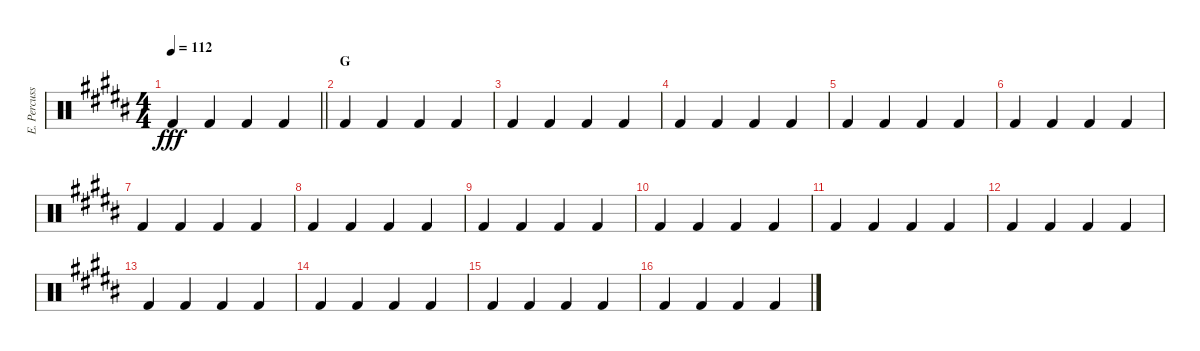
\track ("E. Percussion" "E. Percuss") {instrument percussion}
\staff {score}
\articulation defaults
\ts (4 4)
\tempo 112
\clef neutral
\barLineRight lightlight
\ks b "Kick (hit) 2".4{dy fff} "Kick (hit) 2".4 "Kick (hit) 2".4 "Kick (hit) 2".4
|
\section ("" "G")
"Kick (hit) 2".4 "Kick (hit) 2".4 "Kick (hit) 2".4 "Kick (hit) 2".4 |
"Kick (hit) 2".4 "Kick (hit) 2".4 "Kick (hit) 2".4 "Kick (hit) 2".4 |
"Kick (hit) 2".4 "Kick (hit) 2".4 "Kick (hit) 2".4 "Kick (hit) 2".4 |
"Kick (hit) 2".4 "Kick (hit) 2".4 "Kick (hit) 2".4 "Kick (hit) 2".4 |
"Kick (hit) 2".4 "Kick (hit) 2".4 "Kick (hit) 2".4 "Kick (hit) 2".4 |
"Kick (hit) 2".4 "Kick (hit) 2".4 "Kick (hit) 2".4 "Kick (hit) 2".4 |
"Kick (hit) 2".4 "Kick (hit) 2".4 "Kick (hit) 2".4 "Kick (hit) 2".4 |
"Kick (hit) 2".4 "Kick (hit) 2".4 "Kick (hit) 2".4 "Kick (hit) 2".4 |
"Kick (hit) 2".4 "Kick (hit) 2".4 "Kick (hit) 2".4 "Kick (hit) 2".4 |
"Kick (hit) 2".4 "Kick (hit) 2".4 "Kick (hit) 2".4 "Kick (hit) 2".4 |
"Kick (hit) 2".4 "Kick (hit) 2".4 "Kick (hit) 2".4 "Kick (hit) 2".4 |
"Kick (hit) 2".4 "Kick (hit) 2".4 "Kick (hit) 2".4 "Kick (hit) 2".4 |
"Kick (hit) 2".4 "Kick (hit) 2".4 "Kick (hit) 2".4 "Kick (hit) 2".4 |
"Kick (hit) 2".4 "Kick (hit) 2".4 "Kick (hit) 2".4 "Kick (hit) 2".4 |
"Kick (hit) 2".4 "Kick (hit) 2".4 "Kick (hit) 2".4 "Kick (hit) 2".4
